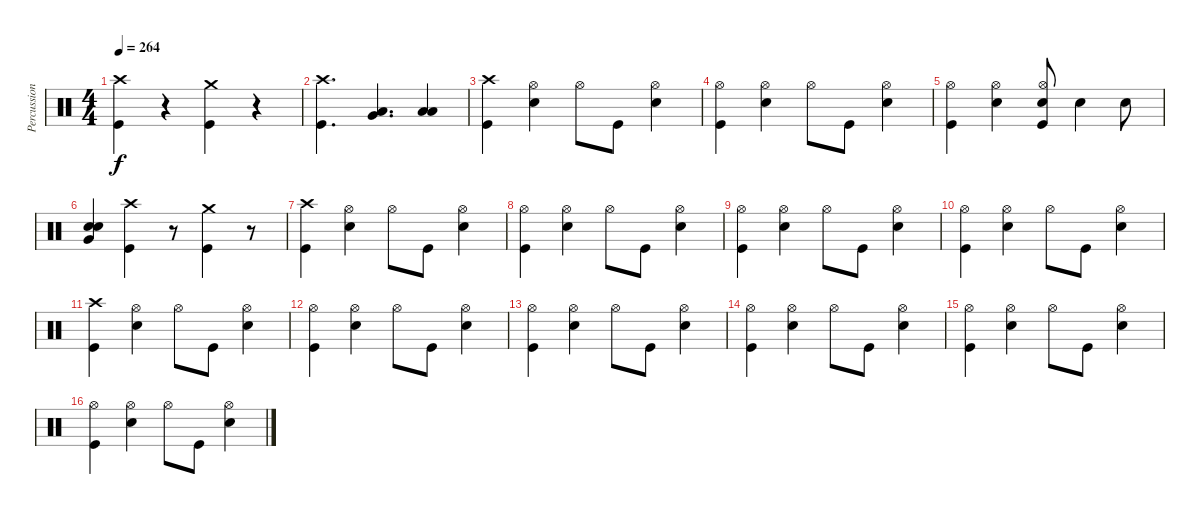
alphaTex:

\track ("Percussion" "Percussion") {instrument percussion}
\staff {score}
\articulation defaults
\ts (4 4)
\tempo 264
\clef neutral
\ks c
("Crash high (hit)" "Kick (hit)").4{dy f} r.4 ("Crash medium (hit)" "Kick (hit)").4 r.4 |
("Crash high (hit)" "Kick (hit)").4{d} ("Very Low Tom (hit)" "Low Floor Tom (hit)").4{d} ("Low Floor Tom (hit)" "Low Floor Tom (hit)").4 |
("Crash high (hit)" "Kick (hit)").4 ("Hi-Hat (open)" "Snare (hit) 2").4 "Hi-Hat (open)".8 "Kick (hit)".8 ("Hi-Hat (open)" "Snare (hit) 2").4 |
("Hi-Hat (open)" "Kick (hit)").4 ("Hi-Hat (open)" "Snare (hit) 2").4 "Hi-Hat (open)".8 "Kick (hit)".8 ("Hi-Hat (open)" "Snare (hit) 2").4 |
("Hi-Hat (open)" "Kick (hit)").4 ("Hi-Hat (open)" "Snare (hit) 2").4 ("Hi-Hat (open)" "Snare (hit) 2" "Kick (hit)").8 "Snare (hit) 2".4 "Snare (hit) 2".8 |
("Very Low Tom (hit)" "Electric Snare (hit)" "Snare (hit) 2").4 ("Crash high (hit)" "Kick (hit)").4 r.8 ("Crash medium (hit)" "Kick (hit)").4 r.8 |
("Crash high (hit)" "Kick (hit)").4 ("Hi-Hat (open)" "Snare (hit) 2").4 "Hi-Hat (open)".8 "Kick (hit)".8 ("Hi-Hat (open)" "Snare (hit) 2").4 |
("Hi-Hat (open)" "Kick (hit)").4 ("Hi-Hat (open)" "Snare (hit) 2").4 "Hi-Hat (open)".8 "Kick (hit)".8 ("Hi-Hat (open)" "Snare (hit) 2").4 |
("Hi-Hat (open)" "Kick (hit)").4 ("Hi-Hat (open)" "Snare (hit) 2").4 "Hi-Hat (open)".8 "Kick (hit)".8 ("Hi-Hat (open)" "Snare (hit) 2").4 |
("Hi-Hat (open)" "Kick (hit)").4 ("Hi-Hat (open)" "Snare (hit) 2").4 "Hi-Hat (open)".8 "Kick (hit)".8 ("Hi-Hat (open)" "Snare (hit) 2").4 |
("Crash high (hit)" "Kick (hit)").4 ("Hi-Hat (open)" "Snare (hit) 2").4 "Hi-Hat (open)".8 "Kick (hit)".8 ("Hi-Hat (open)" "Snare (hit) 2").4 |
("Hi-Hat (open)" "Kick (hit)").4 ("Hi-Hat (open)" "Snare (hit) 2").4 "Hi-Hat (open)".8 "Kick (hit)".8 ("Hi-Hat (open)" "Snare (hit) 2").4 |
("Hi-Hat (open)" "Kick (hit)").4 ("Hi-Hat (open)" "Snare (hit) 2").4 "Hi-Hat (open)".8 "Kick (hit)".8 ("Hi-Hat (open)" "Snare (hit) 2").4 |
("Hi-Hat (open)" "Kick (hit)").4 ("Hi-Hat (open)" "Snare (hit) 2").4 "Hi-Hat (open)".8 "Kick (hit)".8 ("Hi-Hat (open)" "Snare (hit) 2").4 |
("Hi-Hat (open)" "Kick (hit)").4 ("Hi-Hat (open)" "Snare (hit) 2").4 "Hi-Hat (open)".8 "Kick (hit)".8 ("Hi-Hat (open)" "Snare (hit) 2").4 |
("Hi-Hat (open)" "Kick (hit)").4 ("Hi-Hat (open)" "Snare (hit) 2").4 "Hi-Hat (open)".8 "Kick (hit)".8 ("Hi-Hat (open)" "Snare (hit) 2").4
